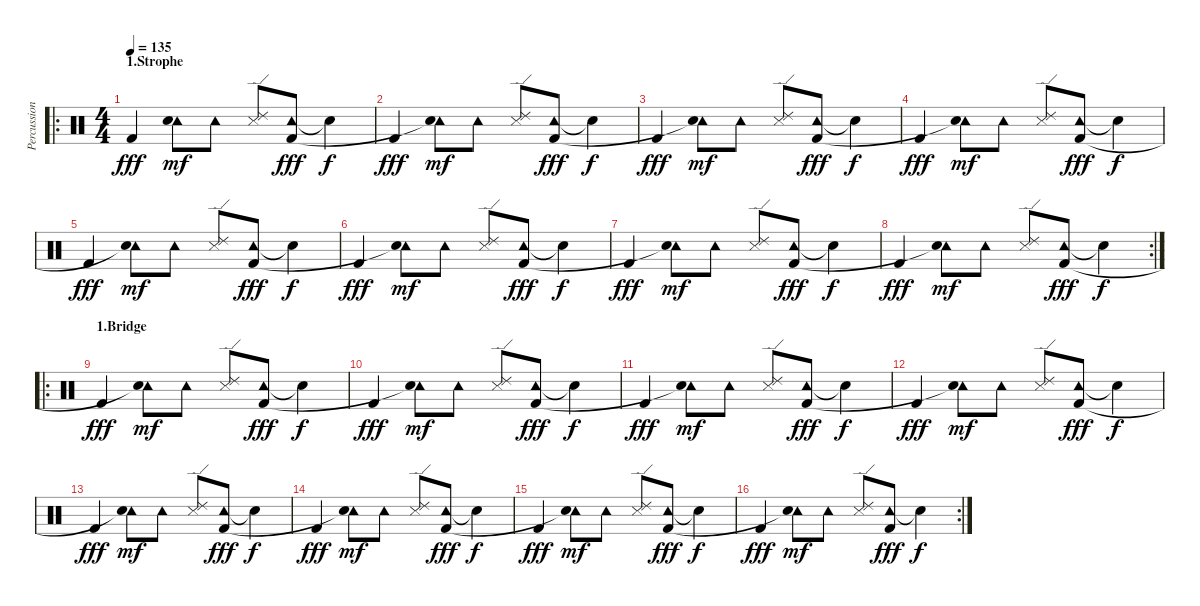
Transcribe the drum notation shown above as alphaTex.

\track ("Percussion" "Percussion") {instrument percussion}
\staff {score}
\articulation defaults
\ro
\ts (4 4)
\section ("" "1.Strophe")
\tempo 135
\clef neutral
\ks c "Kick (hit) 2".4{dy fff volume 13}
("Tambourine (hit)" "Snare (hit)").8{dy mf} "Tambourine (hit)".8 ("Snare (side stick) 3" "Ride (edge) 2").8 ("Tambourine (hit)" "Kick (hit) 2").8{dy fff} "Snare (hit)"{t}.4{dy f} |
"Kick (hit) 2".4{dy fff} ("Tambourine (hit)" "Snare (hit)"{t}).8{dy mf} "Tambourine (hit)".8 ("Snare (side stick) 3" "Ride (edge) 2").8 ("Tambourine (hit)" "Kick (hit) 2").8{dy fff} "Snare (hit)"{t}.4{dy f} |
"Kick (hit) 2".4{dy fff} ("Tambourine (hit)" "Snare (hit)"{t}).8{dy mf} "Tambourine (hit)".8 ("Snare (side stick) 3" "Ride (edge) 2").8 ("Tambourine (hit)" "Kick (hit) 2").8{dy fff} "Snare (hit)"{t}.4{dy f} |
"Kick (hit) 2".4{dy fff} ("Tambourine (hit)" "Snare (hit)"{t}).8{dy mf} "Tambourine (hit)".8 ("Snare (side stick) 3" "Ride (edge) 2").8 ("Tambourine (hit)" "Kick (hit) 2").8{dy fff} "Snare (hit)"{t}.4{dy f} |
"Kick (hit) 2".4{dy fff} ("Tambourine (hit)" "Snare (hit)"{t}).8{dy mf} "Tambourine (hit)".8 ("Snare (side stick) 3" "Ride (edge) 2").8 ("Tambourine (hit)" "Kick (hit) 2").8{dy fff} "Snare (hit)"{t}.4{dy f} |
"Kick (hit) 2".4{dy fff} ("Tambourine (hit)" "Snare (hit)"{t}).8{dy mf} "Tambourine (hit)".8 ("Snare (side stick) 3" "Ride (edge) 2").8 ("Tambourine (hit)" "Kick (hit) 2").8{dy fff} "Snare (hit)"{t}.4{dy f} |
"Kick (hit) 2".4{dy fff} ("Tambourine (hit)" "Snare (hit)"{t}).8{dy mf} "Tambourine (hit)".8 ("Snare (side stick) 3" "Ride (edge) 2").8 ("Tambourine (hit)" "Kick (hit) 2").8{dy fff} "Snare (hit)"{t}.4{dy f} |
\rc 2 "Kick (hit) 2".4{dy fff}
("Tambourine (hit)" "Snare (hit)"{t}).8{dy mf} "Tambourine (hit)".8 ("Snare (side stick) 3" "Ride (edge) 2").8 ("Tambourine (hit)" "Kick (hit) 2").8{dy fff} "Snare (hit)"{t}.4{dy f} |
\ro
\section ("" "1.Bridge")
"Kick (hit) 2".4{dy fff} ("Tambourine (hit)" "Snare (hit)"{t}).8{dy mf} "Tambourine (hit)".8 ("Snare (side stick) 3" "Ride (edge) 2").8 ("Tambourine (hit)" "Kick (hit) 2").8{dy fff} "Snare (hit)"{t}.4{dy f} |
"Kick (hit) 2".4{dy fff} ("Tambourine (hit)" "Snare (hit)"{t}).8{dy mf} "Tambourine (hit)".8 ("Snare (side stick) 3" "Ride (edge) 2").8 ("Tambourine (hit)" "Kick (hit) 2").8{dy fff} "Snare (hit)"{t}.4{dy f} |
"Kick (hit) 2".4{dy fff} ("Tambourine (hit)" "Snare (hit)"{t}).8{dy mf} "Tambourine (hit)".8 ("Snare (side stick) 3" "Ride (edge) 2").8 ("Tambourine (hit)" "Kick (hit) 2").8{dy fff} "Snare (hit)"{t}.4{dy f} |
"Kick (hit) 2".4{dy fff} ("Tambourine (hit)" "Snare (hit)"{t}).8{dy mf} "Tambourine (hit)".8 ("Snare (side stick) 3" "Ride (edge) 2").8 ("Tambourine (hit)" "Kick (hit) 2").8{dy fff} "Snare (hit)"{t}.4{dy f} |
"Kick (hit) 2".4{dy fff} ("Tambourine (hit)" "Snare (hit)"{t}).8{dy mf} "Tambourine (hit)".8 ("Snare (side stick) 3" "Ride (edge) 2").8 ("Tambourine (hit)" "Kick (hit) 2").8{dy fff} "Snare (hit)"{t}.4{dy f} |
"Kick (hit) 2".4{dy fff} ("Tambourine (hit)" "Snare (hit)"{t}).8{dy mf} "Tambourine (hit)".8 ("Snare (side stick) 3" "Ride (edge) 2").8 ("Tambourine (hit)" "Kick (hit) 2").8{dy fff} "Snare (hit)"{t}.4{dy f} |
"Kick (hit) 2".4{dy fff} ("Tambourine (hit)" "Snare (hit)"{t}).8{dy mf} "Tambourine (hit)".8 ("Snare (side stick) 3" "Ride (edge) 2").8 ("Tambourine (hit)" "Kick (hit) 2").8{dy fff} "Snare (hit)"{t}.4{dy f} |
\rc 2 "Kick (hit) 2".4{dy fff}
("Tambourine (hit)" "Snare (hit)"{t}).8{dy mf} "Tambourine (hit)".8 ("Snare (side stick) 3" "Ride (edge) 2").8 ("Tambourine (hit)" "Kick (hit) 2").8{dy fff} "Snare (hit)"{t}.4{dy f}
